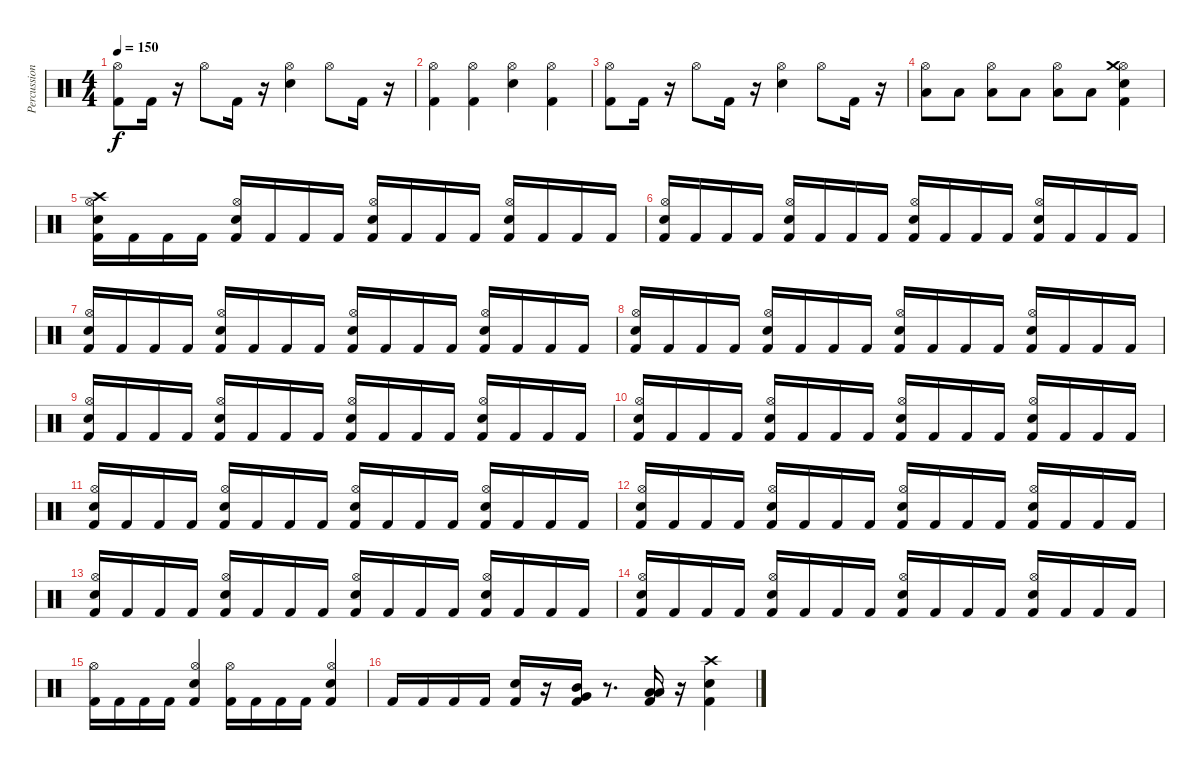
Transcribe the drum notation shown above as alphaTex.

\track ("Percussion" "Percussion") {instrument percussion}
\staff {score}
\articulation defaults
\ts (4 4)
\tempo 150
\clef neutral
\ks c
("Kick (hit) 2" "Hi-Hat (open)").8{dy f} "Kick (hit) 2".16 r.16 "Hi-Hat (open)".8 "Kick (hit) 2".16 r.16 ("Electric Snare (hit)" "Hi-Hat (open)").4 "Hi-Hat (open)".8 "Kick (hit) 2".16 r.16 |
("Kick (hit) 2" "Hi-Hat (open)").4 ("Kick (hit) 2" "Hi-Hat (open)").4 ("Electric Snare (hit)" "Hi-Hat (open)").4 ("Kick (hit) 2" "Hi-Hat (open)").4 |
("Kick (hit) 2" "Hi-Hat (open)").8 "Kick (hit) 2".16 r.16 "Hi-Hat (open)".8 "Kick (hit) 2".16 r.16 ("Electric Snare (hit)" "Hi-Hat (open)").4 "Hi-Hat (open)".8 "Kick (hit) 2".16 r.16 |
("Low Floor Tom (hit)" "Hi-Hat (open)").8 "Low Floor Tom (hit)".8 ("Low Floor Tom (hit)" "Hi-Hat (open)").8 "Low Floor Tom (hit)".8 ("Low Floor Tom (hit)" "Hi-Hat (open)").8 "Low Floor Tom (hit)".8 ("Kick (hit) 2" "Electric Snare (hit)" "Hi-Hat (open)" "Crash medium (hit)").4 |
("Kick (hit) 2" "Electric Snare (hit)" "Hi-Hat (open)" "Crash high (hit)").16 "Kick (hit) 2".16 "Kick (hit) 2".16 "Kick (hit) 2".16 ("Kick (hit) 2" "Electric Snare (hit)" "Hi-Hat (open)").16 "Kick (hit) 2".16 "Kick (hit) 2".16 "Kick (hit) 2".16 ("Kick (hit) 2" "Electric Snare (hit)" "Hi-Hat (open)").16 "Kick (hit) 2".16 "Kick (hit) 2".16 "Kick (hit) 2".16 ("Kick (hit) 2" "Electric Snare (hit)" "Hi-Hat (open)").16 "Kick (hit) 2".16 "Kick (hit) 2".16 "Kick (hit) 2".16 |
("Kick (hit) 2" "Electric Snare (hit)" "Hi-Hat (open)").16 "Kick (hit) 2".16 "Kick (hit) 2".16 "Kick (hit) 2".16 ("Kick (hit) 2" "Electric Snare (hit)" "Hi-Hat (open)").16 "Kick (hit) 2".16 "Kick (hit) 2".16 "Kick (hit) 2".16 ("Kick (hit) 2" "Electric Snare (hit)" "Hi-Hat (open)").16 "Kick (hit) 2".16 "Kick (hit) 2".16 "Kick (hit) 2".16 ("Kick (hit) 2" "Electric Snare (hit)" "Hi-Hat (open)").16 "Kick (hit) 2".16 "Kick (hit) 2".16 "Kick (hit) 2".16 |
("Kick (hit) 2" "Electric Snare (hit)" "Hi-Hat (open)").16 "Kick (hit) 2".16 "Kick (hit) 2".16 "Kick (hit) 2".16 ("Kick (hit) 2" "Electric Snare (hit)" "Hi-Hat (open)").16 "Kick (hit) 2".16 "Kick (hit) 2".16 "Kick (hit) 2".16 ("Kick (hit) 2" "Electric Snare (hit)" "Hi-Hat (open)").16 "Kick (hit) 2".16 "Kick (hit) 2".16 "Kick (hit) 2".16 ("Kick (hit) 2" "Electric Snare (hit)" "Hi-Hat (open)").16 "Kick (hit) 2".16 "Kick (hit) 2".16 "Kick (hit) 2".16 |
("Kick (hit) 2" "Electric Snare (hit)" "Hi-Hat (open)").16 "Kick (hit) 2".16 "Kick (hit) 2".16 "Kick (hit) 2".16 ("Kick (hit) 2" "Electric Snare (hit)" "Hi-Hat (open)").16 "Kick (hit) 2".16 "Kick (hit) 2".16 "Kick (hit) 2".16 ("Kick (hit) 2" "Electric Snare (hit)" "Hi-Hat (open)").16 "Kick (hit) 2".16 "Kick (hit) 2".16 "Kick (hit) 2".16 ("Kick (hit) 2" "Electric Snare (hit)" "Hi-Hat (open)").16 "Kick (hit) 2".16 "Kick (hit) 2".16 "Kick (hit) 2".16 |
("Kick (hit) 2" "Electric Snare (hit)" "Hi-Hat (open)").16 "Kick (hit) 2".16 "Kick (hit) 2".16 "Kick (hit) 2".16 ("Kick (hit) 2" "Electric Snare (hit)" "Hi-Hat (open)").16 "Kick (hit) 2".16 "Kick (hit) 2".16 "Kick (hit) 2".16 ("Kick (hit) 2" "Electric Snare (hit)" "Hi-Hat (open)").16 "Kick (hit) 2".16 "Kick (hit) 2".16 "Kick (hit) 2".16 ("Kick (hit) 2" "Electric Snare (hit)" "Hi-Hat (open)").16 "Kick (hit) 2".16 "Kick (hit) 2".16 "Kick (hit) 2".16 |
("Kick (hit) 2" "Electric Snare (hit)" "Hi-Hat (open)").16 "Kick (hit) 2".16 "Kick (hit) 2".16 "Kick (hit) 2".16 ("Kick (hit) 2" "Electric Snare (hit)" "Hi-Hat (open)").16 "Kick (hit) 2".16 "Kick (hit) 2".16 "Kick (hit) 2".16 ("Kick (hit) 2" "Electric Snare (hit)" "Hi-Hat (open)").16 "Kick (hit) 2".16 "Kick (hit) 2".16 "Kick (hit) 2".16 ("Kick (hit) 2" "Electric Snare (hit)" "Hi-Hat (open)").16 "Kick (hit) 2".16 "Kick (hit) 2".16 "Kick (hit) 2".16 |
("Kick (hit) 2" "Electric Snare (hit)" "Hi-Hat (open)").16 "Kick (hit) 2".16 "Kick (hit) 2".16 "Kick (hit) 2".16 ("Kick (hit) 2" "Electric Snare (hit)" "Hi-Hat (open)").16 "Kick (hit) 2".16 "Kick (hit) 2".16 "Kick (hit) 2".16 ("Kick (hit) 2" "Electric Snare (hit)" "Hi-Hat (open)").16 "Kick (hit) 2".16 "Kick (hit) 2".16 "Kick (hit) 2".16 ("Kick (hit) 2" "Electric Snare (hit)" "Hi-Hat (open)").16 "Kick (hit) 2".16 "Kick (hit) 2".16 "Kick (hit) 2".16 |
("Kick (hit) 2" "Electric Snare (hit)" "Hi-Hat (open)").16 "Kick (hit) 2".16 "Kick (hit) 2".16 "Kick (hit) 2".16 ("Kick (hit) 2" "Electric Snare (hit)" "Hi-Hat (open)").16 "Kick (hit) 2".16 "Kick (hit) 2".16 "Kick (hit) 2".16 ("Kick (hit) 2" "Electric Snare (hit)" "Hi-Hat (open)").16 "Kick (hit) 2".16 "Kick (hit) 2".16 "Kick (hit) 2".16 ("Kick (hit) 2" "Electric Snare (hit)" "Hi-Hat (open)").16 "Kick (hit) 2".16 "Kick (hit) 2".16 "Kick (hit) 2".16 |
("Kick (hit) 2" "Electric Snare (hit)" "Hi-Hat (open)").16 "Kick (hit) 2".16 "Kick (hit) 2".16 "Kick (hit) 2".16 ("Kick (hit) 2" "Electric Snare (hit)" "Hi-Hat (open)").16 "Kick (hit) 2".16 "Kick (hit) 2".16 "Kick (hit) 2".16 ("Kick (hit) 2" "Electric Snare (hit)" "Hi-Hat (open)").16 "Kick (hit) 2".16 "Kick (hit) 2".16 "Kick (hit) 2".16 ("Kick (hit) 2" "Electric Snare (hit)" "Hi-Hat (open)").16 "Kick (hit) 2".16 "Kick (hit) 2".16 "Kick (hit) 2".16 |
("Kick (hit) 2" "Electric Snare (hit)" "Hi-Hat (open)").16 "Kick (hit) 2".16 "Kick (hit) 2".16 "Kick (hit) 2".16 ("Kick (hit) 2" "Electric Snare (hit)" "Hi-Hat (open)").16 "Kick (hit) 2".16 "Kick (hit) 2".16 "Kick (hit) 2".16 ("Kick (hit) 2" "Electric Snare (hit)" "Hi-Hat (open)").16 "Kick (hit) 2".16 "Kick (hit) 2".16 "Kick (hit) 2".16 ("Kick (hit) 2" "Electric Snare (hit)" "Hi-Hat (open)").16 "Kick (hit) 2".16 "Kick (hit) 2".16 "Kick (hit) 2".16 |
("Kick (hit) 2" "Hi-Hat (open)").16 "Kick (hit) 2".16 "Kick (hit) 2".16 "Kick (hit) 2".16 ("Kick (hit) 2" "Electric Snare (hit)" "Hi-Hat (open)").4 ("Kick (hit) 2" "Hi-Hat (open)").16 "Kick (hit) 2".16 "Kick (hit) 2".16 "Kick (hit) 2".16 ("Kick (hit) 2" "Electric Snare (hit)" "Hi-Hat (open)").4 |
"Kick (hit) 2".16 "Kick (hit) 2".16 "Kick (hit) 2".16 "Kick (hit) 2".16 ("Kick (hit) 2" "Electric Snare (hit)").16 r.16 ("Kick (hit) 2" "Very Low Tom (hit)" "Mid Tom (hit)").16 r.8{d} ("Kick (hit) 2" "Low Floor Tom (hit)" "Low Tom (hit)").16 r.16 ("Kick (hit) 2" "Electric Snare (hit)" "Crash high (hit)").4
